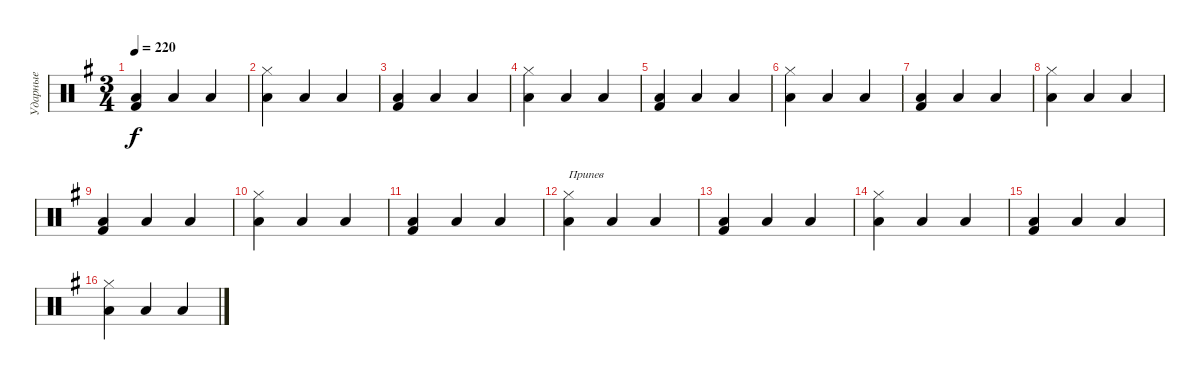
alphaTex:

\track ("Ударные" "Ударные") {instrument percussion}
\staff {score}
\articulation defaults
\ts (3 4)
\tempo 220
\clef neutral
\ks eminor
("Kick (hit) 2" "Low Tom (hit)").4{dy f} "Low Tom (hit)".4 "Low Tom (hit)".4 |
("Hi-Hat (closed)" "Low Tom (hit)").4 "Low Tom (hit)".4 "Low Tom (hit)".4 |
("Kick (hit) 2" "Low Tom (hit)").4 "Low Tom (hit)".4 "Low Tom (hit)".4 |
("Hi-Hat (closed)" "Low Tom (hit)").4 "Low Tom (hit)".4 "Low Tom (hit)".4 |
("Kick (hit) 2" "Low Tom (hit)").4 "Low Tom (hit)".4 "Low Tom (hit)".4 |
("Hi-Hat (closed)" "Low Tom (hit)").4 "Low Tom (hit)".4 "Low Tom (hit)".4 |
("Kick (hit) 2" "Low Tom (hit)").4 "Low Tom (hit)".4 "Low Tom (hit)".4 |
("Hi-Hat (closed)" "Low Tom (hit)").4 "Low Tom (hit)".4 "Low Tom (hit)".4 |
("Kick (hit) 2" "Low Tom (hit)").4 "Low Tom (hit)".4 "Low Tom (hit)".4 |
("Hi-Hat (closed)" "Low Tom (hit)").4 "Low Tom (hit)".4 "Low Tom (hit)".4 |
("Kick (hit) 2" "Low Tom (hit)").4 "Low Tom (hit)".4 "Low Tom (hit)".4 |
("Hi-Hat (closed)" "Low Tom (hit)").4{txt "Припев"} "Low Tom (hit)".4 "Low Tom (hit)".4 |
("Kick (hit) 2" "Low Tom (hit)").4 "Low Tom (hit)".4 "Low Tom (hit)".4 |
("Hi-Hat (closed)" "Low Tom (hit)").4 "Low Tom (hit)".4 "Low Tom (hit)".4 |
("Kick (hit) 2" "Low Tom (hit)").4 "Low Tom (hit)".4 "Low Tom (hit)".4 |
("Hi-Hat (closed)" "Low Tom (hit)").4 "Low Tom (hit)".4 "Low Tom (hit)".4
